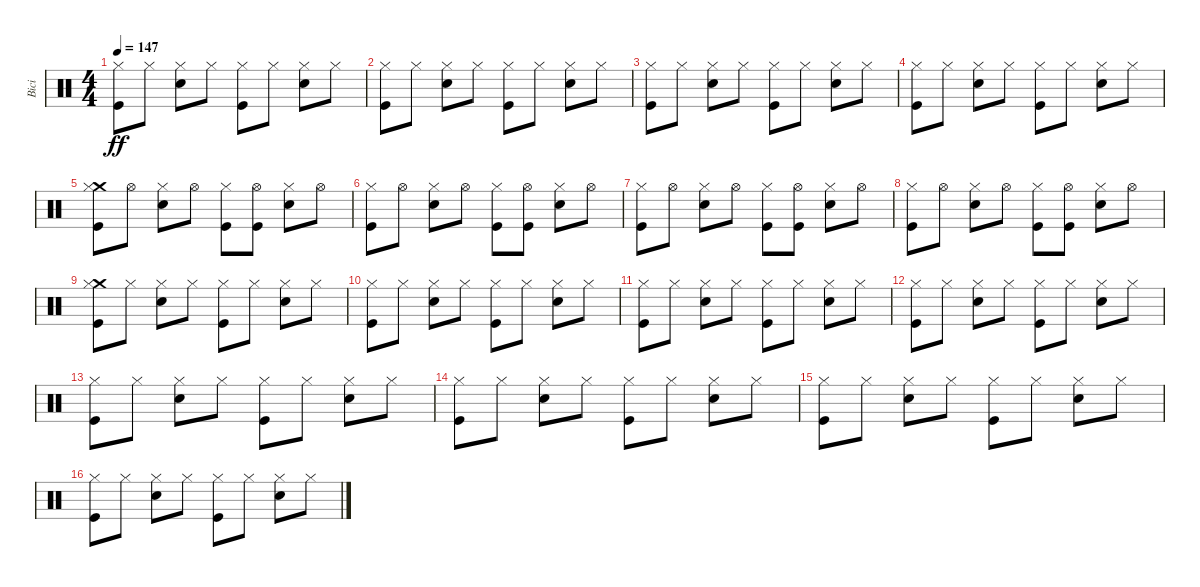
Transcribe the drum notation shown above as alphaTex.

\track ("Bici" "Bici") {instrument percussion}
\staff {score}
\articulation defaults
\ts (4 4)
\tempo 147
\clef neutral
\ks c
("Kick (hit)" "Hi-Hat (closed)").8{dy ff} "Hi-Hat (closed)".8 ("Snare (hit) 2" "Hi-Hat (closed)").8 "Hi-Hat (closed)".8 ("Kick (hit)" "Hi-Hat (closed)").8 "Hi-Hat (closed)".8 ("Snare (hit) 2" "Hi-Hat (closed)").8 "Hi-Hat (closed)".8 |
("Kick (hit)" "Hi-Hat (closed)").8 "Hi-Hat (closed)".8 ("Snare (hit) 2" "Hi-Hat (closed)").8 "Hi-Hat (closed)".8 ("Kick (hit)" "Hi-Hat (closed)").8 "Hi-Hat (closed)".8 ("Snare (hit) 2" "Hi-Hat (closed)").8 "Hi-Hat (closed)".8 |
("Kick (hit)" "Hi-Hat (closed)").8 "Hi-Hat (closed)".8 ("Snare (hit) 2" "Hi-Hat (closed)").8 "Hi-Hat (closed)".8 ("Kick (hit)" "Hi-Hat (closed)").8 "Hi-Hat (closed)".8 ("Snare (hit) 2" "Hi-Hat (closed)").8 "Hi-Hat (closed)".8 |
("Kick (hit)" "Hi-Hat (closed)").8 "Hi-Hat (closed)".8 ("Snare (hit) 2" "Hi-Hat (closed)").8 "Hi-Hat (closed)".8 ("Kick (hit)" "Hi-Hat (closed)").8 "Hi-Hat (closed)".8 ("Snare (hit) 2" "Hi-Hat (closed)").8 "Hi-Hat (closed)".8 |
("Kick (hit)" "Crash medium (hit)" "Hi-Hat (closed)").8 "Hi-Hat (open)".8 ("Snare (hit) 2" "Hi-Hat (closed)").8 "Hi-Hat (open)".8 ("Kick (hit)" "Hi-Hat (closed)").8 ("Kick (hit)" "Hi-Hat (open)").8 ("Snare (hit) 2" "Hi-Hat (closed)").8 "Hi-Hat (open)".8 |
("Kick (hit)" "Hi-Hat (closed)").8 "Hi-Hat (open)".8 ("Snare (hit) 2" "Hi-Hat (closed)").8 "Hi-Hat (open)".8 ("Kick (hit)" "Hi-Hat (closed)").8 ("Kick (hit)" "Hi-Hat (open)").8 ("Snare (hit) 2" "Hi-Hat (closed)").8 "Hi-Hat (open)".8 |
("Kick (hit)" "Hi-Hat (closed)").8 "Hi-Hat (open)".8 ("Snare (hit) 2" "Hi-Hat (closed)").8 "Hi-Hat (open)".8 ("Kick (hit)" "Hi-Hat (closed)").8 ("Kick (hit)" "Hi-Hat (open)").8 ("Snare (hit) 2" "Hi-Hat (closed)").8 "Hi-Hat (open)".8 |
("Kick (hit)" "Hi-Hat (closed)").8 "Hi-Hat (open)".8 ("Snare (hit) 2" "Hi-Hat (closed)").8 "Hi-Hat (open)".8 ("Kick (hit)" "Hi-Hat (closed)").8 ("Kick (hit)" "Hi-Hat (open)").8 ("Snare (hit) 2" "Hi-Hat (closed)").8 "Hi-Hat (open)".8 |
("Kick (hit)" "Crash medium (hit)" "Hi-Hat (closed)").8 "Hi-Hat (closed)".8 ("Snare (hit) 2" "Hi-Hat (closed)").8 "Hi-Hat (closed)".8 ("Kick (hit)" "Hi-Hat (closed)").8 "Hi-Hat (closed)".8 ("Snare (hit) 2" "Hi-Hat (closed)").8 "Hi-Hat (closed)".8 |
("Kick (hit)" "Hi-Hat (closed)").8 "Hi-Hat (closed)".8 ("Snare (hit) 2" "Hi-Hat (closed)").8 "Hi-Hat (closed)".8 ("Kick (hit)" "Hi-Hat (closed)").8 "Hi-Hat (closed)".8 ("Snare (hit) 2" "Hi-Hat (closed)").8 "Hi-Hat (closed)".8 |
("Kick (hit)" "Hi-Hat (closed)").8 "Hi-Hat (closed)".8 ("Snare (hit) 2" "Hi-Hat (closed)").8 "Hi-Hat (closed)".8 ("Kick (hit)" "Hi-Hat (closed)").8 "Hi-Hat (closed)".8 ("Snare (hit) 2" "Hi-Hat (closed)").8 "Hi-Hat (closed)".8 |
("Kick (hit)" "Hi-Hat (closed)").8 "Hi-Hat (closed)".8 ("Snare (hit) 2" "Hi-Hat (closed)").8 "Hi-Hat (closed)".8 ("Kick (hit)" "Hi-Hat (closed)").8 "Hi-Hat (closed)".8 ("Snare (hit) 2" "Hi-Hat (closed)").8 "Hi-Hat (closed)".8 |
("Kick (hit)" "Hi-Hat (closed)").8 "Hi-Hat (closed)".8 ("Snare (hit) 2" "Hi-Hat (closed)").8 "Hi-Hat (closed)".8 ("Kick (hit)" "Hi-Hat (closed)").8 "Hi-Hat (closed)".8 ("Snare (hit) 2" "Hi-Hat (closed)").8 "Hi-Hat (closed)".8 |
("Kick (hit)" "Hi-Hat (closed)").8 "Hi-Hat (closed)".8 ("Snare (hit) 2" "Hi-Hat (closed)").8 "Hi-Hat (closed)".8 ("Kick (hit)" "Hi-Hat (closed)").8 "Hi-Hat (closed)".8 ("Snare (hit) 2" "Hi-Hat (closed)").8 "Hi-Hat (closed)".8 |
("Kick (hit)" "Hi-Hat (closed)").8 "Hi-Hat (closed)".8 ("Snare (hit) 2" "Hi-Hat (closed)").8 "Hi-Hat (closed)".8 ("Kick (hit)" "Hi-Hat (closed)").8 "Hi-Hat (closed)".8 ("Snare (hit) 2" "Hi-Hat (closed)").8 "Hi-Hat (closed)".8 |
("Kick (hit)" "Hi-Hat (closed)").8 "Hi-Hat (closed)".8 ("Snare (hit) 2" "Hi-Hat (closed)").8 "Hi-Hat (closed)".8 ("Kick (hit)" "Hi-Hat (closed)").8 "Hi-Hat (closed)".8 ("Snare (hit) 2" "Hi-Hat (closed)").8 "Hi-Hat (closed)".8
